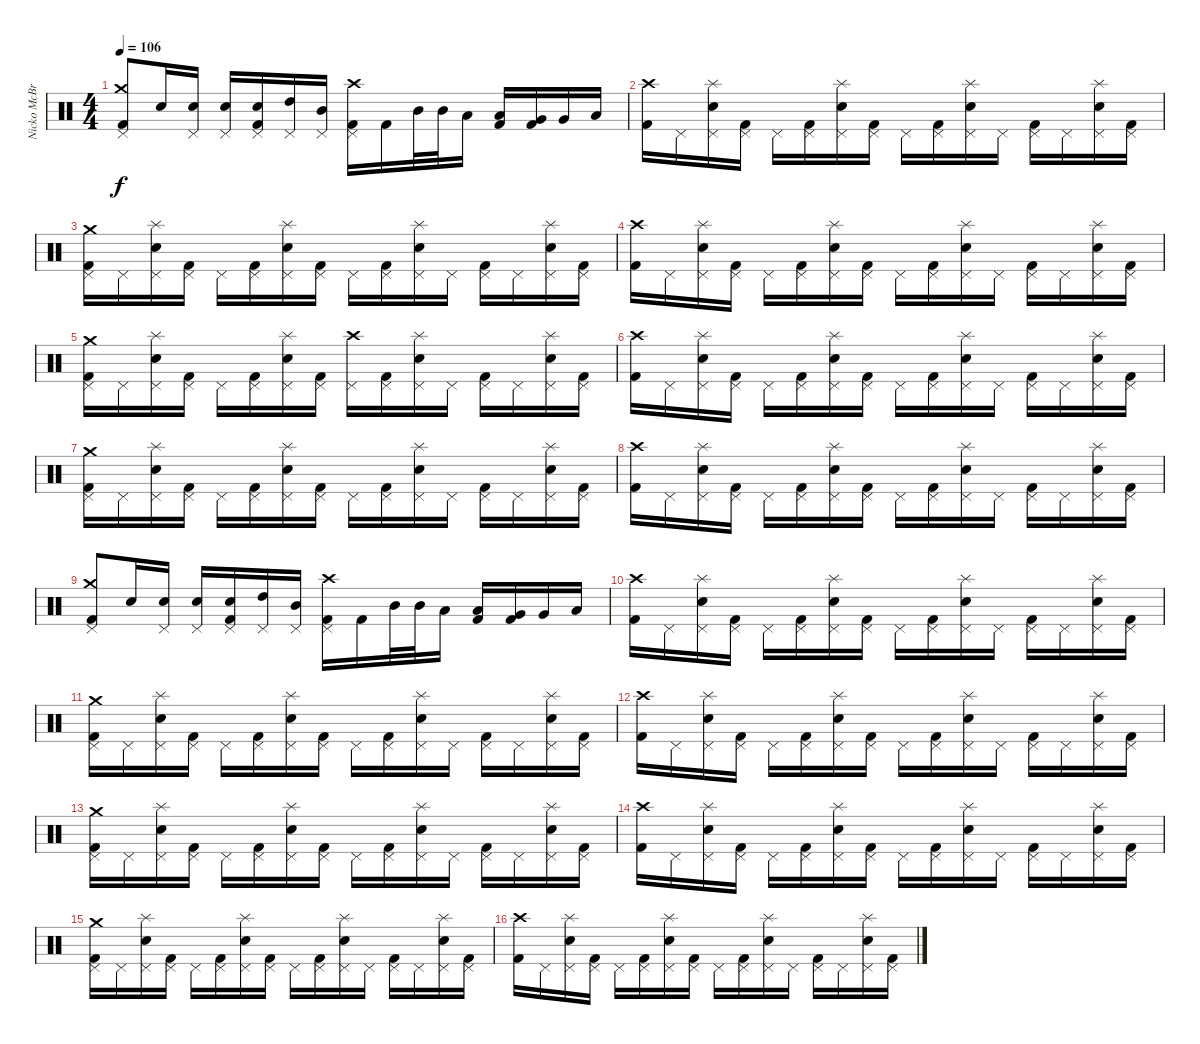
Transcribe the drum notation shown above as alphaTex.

\track ("Nicko McBrain" "Nicko McBr") {instrument percussion}
\staff {score}
\articulation defaults
\ts (4 4)
\tempo 106
\clef neutral
\ks c
("Pedal Hi-Hat (hit)" "Crash medium (hit)" "Kick (hit) 2").8{dy f} "Snare (hit) 2".16 ("Pedal Hi-Hat (hit)" "Snare (hit) 2").16 ("Pedal Hi-Hat (hit)" "Snare (hit) 2").16 ("Pedal Hi-Hat (hit)" "Snare (hit) 2" "Kick (hit) 2").16 ("Pedal Hi-Hat (hit)" "High Tom (hit)").16 ("Pedal Hi-Hat (hit)" "Mid Tom (hit)").16 ("Pedal Hi-Hat (hit)" "Crash high (hit)" "Kick (hit) 2").16 "Kick (hit) 2".16 "Mid Tom (hit)".32 "Mid Tom (hit)".32 "Low Tom (hit)".16 ("Low Tom (hit)" "Kick (hit) 2").16 ("Very Low Tom (hit)" "Kick (hit) 2").16 "Very Low Tom (hit)".16 "Low Floor Tom (hit)".16 |
("Crash high (hit)" "Kick (hit) 2").16 "Pedal Hi-Hat (hit)".16 ("Pedal Hi-Hat (hit)" "Snare (hit) 2" "Splash (hit)").16 ("Pedal Hi-Hat (hit)" "Kick (hit) 2").16 "Pedal Hi-Hat (hit)".16 ("Pedal Hi-Hat (hit)" "Kick (hit) 2").16 ("Pedal Hi-Hat (hit)" "Snare (hit) 2" "Splash (hit)").16 ("Pedal Hi-Hat (hit)" "Kick (hit) 2").16 "Pedal Hi-Hat (hit)".16 ("Pedal Hi-Hat (hit)" "Kick (hit) 2").16 ("Pedal Hi-Hat (hit)" "Snare (hit) 2" "Splash (hit)").16 "Pedal Hi-Hat (hit)".16 ("Pedal Hi-Hat (hit)" "Kick (hit) 2").16 "Pedal Hi-Hat (hit)".16 ("Pedal Hi-Hat (hit)" "Snare (hit) 2" "Splash (hit)").16 ("Pedal Hi-Hat (hit)" "Kick (hit) 2").16 |
("Pedal Hi-Hat (hit)" "Crash medium (hit)" "Kick (hit) 2").16 "Pedal Hi-Hat (hit)".16 ("Pedal Hi-Hat (hit)" "Snare (hit) 2" "Splash (hit)").16 ("Pedal Hi-Hat (hit)" "Kick (hit) 2").16 "Pedal Hi-Hat (hit)".16 ("Pedal Hi-Hat (hit)" "Kick (hit) 2").16 ("Pedal Hi-Hat (hit)" "Snare (hit) 2" "Splash (hit)").16 ("Pedal Hi-Hat (hit)" "Kick (hit) 2").16 "Pedal Hi-Hat (hit)".16 ("Pedal Hi-Hat (hit)" "Kick (hit) 2").16 ("Pedal Hi-Hat (hit)" "Snare (hit) 2" "Splash (hit)").16 "Pedal Hi-Hat (hit)".16 ("Pedal Hi-Hat (hit)" "Kick (hit) 2").16 "Pedal Hi-Hat (hit)".16 ("Pedal Hi-Hat (hit)" "Snare (hit) 2" "Splash (hit)").16 ("Pedal Hi-Hat (hit)" "Kick (hit) 2").16 |
("Crash high (hit)" "Kick (hit) 2").16 "Pedal Hi-Hat (hit)".16 ("Pedal Hi-Hat (hit)" "Snare (hit) 2" "Splash (hit)").16 ("Pedal Hi-Hat (hit)" "Kick (hit) 2").16 "Pedal Hi-Hat (hit)".16 ("Pedal Hi-Hat (hit)" "Kick (hit) 2").16 ("Pedal Hi-Hat (hit)" "Snare (hit) 2" "Splash (hit)").16 ("Pedal Hi-Hat (hit)" "Kick (hit) 2").16 "Pedal Hi-Hat (hit)".16 ("Pedal Hi-Hat (hit)" "Kick (hit) 2").16 ("Pedal Hi-Hat (hit)" "Snare (hit) 2" "Splash (hit)").16 "Pedal Hi-Hat (hit)".16 ("Pedal Hi-Hat (hit)" "Kick (hit) 2").16 "Pedal Hi-Hat (hit)".16 ("Pedal Hi-Hat (hit)" "Snare (hit) 2" "Splash (hit)").16 ("Pedal Hi-Hat (hit)" "Kick (hit) 2").16 |
("Pedal Hi-Hat (hit)" "Crash medium (hit)" "Kick (hit) 2").16 "Pedal Hi-Hat (hit)".16 ("Pedal Hi-Hat (hit)" "Snare (hit) 2" "Splash (hit)").16 ("Pedal Hi-Hat (hit)" "Kick (hit) 2").16 "Pedal Hi-Hat (hit)".16 ("Pedal Hi-Hat (hit)" "Kick (hit) 2").16 ("Pedal Hi-Hat (hit)" "Snare (hit) 2" "Splash (hit)").16 ("Pedal Hi-Hat (hit)" "Kick (hit) 2").16 ("Pedal Hi-Hat (hit)" "Crash high (hit)").16 ("Pedal Hi-Hat (hit)" "Kick (hit) 2").16 ("Pedal Hi-Hat (hit)" "Snare (hit) 2" "Splash (hit)").16 "Pedal Hi-Hat (hit)".16 ("Pedal Hi-Hat (hit)" "Kick (hit) 2").16 "Pedal Hi-Hat (hit)".16 ("Pedal Hi-Hat (hit)" "Snare (hit) 2" "Splash (hit)").16 ("Pedal Hi-Hat (hit)" "Kick (hit) 2").16 |
("Crash high (hit)" "Kick (hit) 2").16 "Pedal Hi-Hat (hit)".16 ("Pedal Hi-Hat (hit)" "Snare (hit) 2" "Splash (hit)").16 ("Pedal Hi-Hat (hit)" "Kick (hit) 2").16 "Pedal Hi-Hat (hit)".16 ("Pedal Hi-Hat (hit)" "Kick (hit) 2").16 ("Pedal Hi-Hat (hit)" "Snare (hit) 2" "Splash (hit)").16 ("Pedal Hi-Hat (hit)" "Kick (hit) 2").16 "Pedal Hi-Hat (hit)".16 ("Pedal Hi-Hat (hit)" "Kick (hit) 2").16 ("Pedal Hi-Hat (hit)" "Snare (hit) 2" "Splash (hit)").16 "Pedal Hi-Hat (hit)".16 ("Pedal Hi-Hat (hit)" "Kick (hit) 2").16 "Pedal Hi-Hat (hit)".16 ("Pedal Hi-Hat (hit)" "Snare (hit) 2" "Splash (hit)").16 ("Pedal Hi-Hat (hit)" "Kick (hit) 2").16 |
("Pedal Hi-Hat (hit)" "Crash medium (hit)" "Kick (hit) 2").16 "Pedal Hi-Hat (hit)".16 ("Pedal Hi-Hat (hit)" "Snare (hit) 2" "Splash (hit)").16 ("Pedal Hi-Hat (hit)" "Kick (hit) 2").16 "Pedal Hi-Hat (hit)".16 ("Pedal Hi-Hat (hit)" "Kick (hit) 2").16 ("Pedal Hi-Hat (hit)" "Snare (hit) 2" "Splash (hit)").16 ("Pedal Hi-Hat (hit)" "Kick (hit) 2").16 "Pedal Hi-Hat (hit)".16 ("Pedal Hi-Hat (hit)" "Kick (hit) 2").16 ("Pedal Hi-Hat (hit)" "Snare (hit) 2" "Splash (hit)").16 "Pedal Hi-Hat (hit)".16 ("Pedal Hi-Hat (hit)" "Kick (hit) 2").16 "Pedal Hi-Hat (hit)".16 ("Pedal Hi-Hat (hit)" "Snare (hit) 2" "Splash (hit)").16 ("Pedal Hi-Hat (hit)" "Kick (hit) 2").16 |
("Crash high (hit)" "Kick (hit) 2").16 "Pedal Hi-Hat (hit)".16 ("Pedal Hi-Hat (hit)" "Snare (hit) 2" "Splash (hit)").16 ("Pedal Hi-Hat (hit)" "Kick (hit) 2").16 "Pedal Hi-Hat (hit)".16 ("Pedal Hi-Hat (hit)" "Kick (hit) 2").16 ("Pedal Hi-Hat (hit)" "Snare (hit) 2" "Splash (hit)").16 ("Pedal Hi-Hat (hit)" "Kick (hit) 2").16 "Pedal Hi-Hat (hit)".16 ("Pedal Hi-Hat (hit)" "Kick (hit) 2").16 ("Pedal Hi-Hat (hit)" "Snare (hit) 2" "Splash (hit)").16 "Pedal Hi-Hat (hit)".16 ("Pedal Hi-Hat (hit)" "Kick (hit) 2").16 "Pedal Hi-Hat (hit)".16 ("Pedal Hi-Hat (hit)" "Snare (hit) 2" "Splash (hit)").16 ("Pedal Hi-Hat (hit)" "Kick (hit) 2").16 |
("Pedal Hi-Hat (hit)" "Crash medium (hit)" "Kick (hit) 2").8 "Snare (hit) 2".16 ("Pedal Hi-Hat (hit)" "Snare (hit) 2").16 ("Pedal Hi-Hat (hit)" "Snare (hit) 2").16 ("Pedal Hi-Hat (hit)" "Snare (hit) 2" "Kick (hit) 2").16 ("Pedal Hi-Hat (hit)" "High Tom (hit)").16 ("Pedal Hi-Hat (hit)" "Mid Tom (hit)").16 ("Pedal Hi-Hat (hit)" "Crash high (hit)" "Kick (hit) 2").16 "Kick (hit) 2".16 "Mid Tom (hit)".32 "Mid Tom (hit)".32 "Low Tom (hit)".16 ("Low Tom (hit)" "Kick (hit) 2").16 ("Very Low Tom (hit)" "Kick (hit) 2").16 "Very Low Tom (hit)".16 "Low Floor Tom (hit)".16 |
("Crash high (hit)" "Kick (hit) 2").16 "Pedal Hi-Hat (hit)".16 ("Pedal Hi-Hat (hit)" "Snare (hit) 2" "Splash (hit)").16 ("Pedal Hi-Hat (hit)" "Kick (hit) 2").16 "Pedal Hi-Hat (hit)".16 ("Pedal Hi-Hat (hit)" "Kick (hit) 2").16 ("Pedal Hi-Hat (hit)" "Snare (hit) 2" "Splash (hit)").16 ("Pedal Hi-Hat (hit)" "Kick (hit) 2").16 "Pedal Hi-Hat (hit)".16 ("Pedal Hi-Hat (hit)" "Kick (hit) 2").16 ("Pedal Hi-Hat (hit)" "Snare (hit) 2" "Splash (hit)").16 "Pedal Hi-Hat (hit)".16 ("Pedal Hi-Hat (hit)" "Kick (hit) 2").16 "Pedal Hi-Hat (hit)".16 ("Pedal Hi-Hat (hit)" "Snare (hit) 2" "Splash (hit)").16 ("Pedal Hi-Hat (hit)" "Kick (hit) 2").16 |
("Pedal Hi-Hat (hit)" "Crash medium (hit)" "Kick (hit) 2").16 "Pedal Hi-Hat (hit)".16 ("Pedal Hi-Hat (hit)" "Snare (hit) 2" "Splash (hit)").16 ("Pedal Hi-Hat (hit)" "Kick (hit) 2").16 "Pedal Hi-Hat (hit)".16 ("Pedal Hi-Hat (hit)" "Kick (hit) 2").16 ("Pedal Hi-Hat (hit)" "Snare (hit) 2" "Splash (hit)").16 ("Pedal Hi-Hat (hit)" "Kick (hit) 2").16 "Pedal Hi-Hat (hit)".16 ("Pedal Hi-Hat (hit)" "Kick (hit) 2").16 ("Pedal Hi-Hat (hit)" "Snare (hit) 2" "Splash (hit)").16 "Pedal Hi-Hat (hit)".16 ("Pedal Hi-Hat (hit)" "Kick (hit) 2").16 "Pedal Hi-Hat (hit)".16 ("Pedal Hi-Hat (hit)" "Snare (hit) 2" "Splash (hit)").16 ("Pedal Hi-Hat (hit)" "Kick (hit) 2").16 |
("Crash high (hit)" "Kick (hit) 2").16 "Pedal Hi-Hat (hit)".16 ("Pedal Hi-Hat (hit)" "Snare (hit) 2" "Splash (hit)").16 ("Pedal Hi-Hat (hit)" "Kick (hit) 2").16 "Pedal Hi-Hat (hit)".16 ("Pedal Hi-Hat (hit)" "Kick (hit) 2").16 ("Pedal Hi-Hat (hit)" "Snare (hit) 2" "Splash (hit)").16 ("Pedal Hi-Hat (hit)" "Kick (hit) 2").16 "Pedal Hi-Hat (hit)".16 ("Pedal Hi-Hat (hit)" "Kick (hit) 2").16 ("Pedal Hi-Hat (hit)" "Snare (hit) 2" "Splash (hit)").16 "Pedal Hi-Hat (hit)".16 ("Pedal Hi-Hat (hit)" "Kick (hit) 2").16 "Pedal Hi-Hat (hit)".16 ("Pedal Hi-Hat (hit)" "Snare (hit) 2" "Splash (hit)").16 ("Pedal Hi-Hat (hit)" "Kick (hit) 2").16 |
("Pedal Hi-Hat (hit)" "Crash medium (hit)" "Kick (hit) 2").16 "Pedal Hi-Hat (hit)".16 ("Pedal Hi-Hat (hit)" "Snare (hit) 2" "Splash (hit)").16 ("Pedal Hi-Hat (hit)" "Kick (hit) 2").16 "Pedal Hi-Hat (hit)".16 ("Pedal Hi-Hat (hit)" "Kick (hit) 2").16 ("Pedal Hi-Hat (hit)" "Snare (hit) 2" "Splash (hit)").16 ("Pedal Hi-Hat (hit)" "Kick (hit) 2").16 "Pedal Hi-Hat (hit)".16 ("Pedal Hi-Hat (hit)" "Kick (hit) 2").16 ("Pedal Hi-Hat (hit)" "Snare (hit) 2" "Splash (hit)").16 "Pedal Hi-Hat (hit)".16 ("Pedal Hi-Hat (hit)" "Kick (hit) 2").16 "Pedal Hi-Hat (hit)".16 ("Pedal Hi-Hat (hit)" "Snare (hit) 2" "Splash (hit)").16 ("Pedal Hi-Hat (hit)" "Kick (hit) 2").16 |
("Crash high (hit)" "Kick (hit) 2").16 "Pedal Hi-Hat (hit)".16 ("Pedal Hi-Hat (hit)" "Snare (hit) 2" "Splash (hit)").16 ("Pedal Hi-Hat (hit)" "Kick (hit) 2").16 "Pedal Hi-Hat (hit)".16 ("Pedal Hi-Hat (hit)" "Kick (hit) 2").16 ("Pedal Hi-Hat (hit)" "Snare (hit) 2" "Splash (hit)").16 ("Pedal Hi-Hat (hit)" "Kick (hit) 2").16 "Pedal Hi-Hat (hit)".16 ("Pedal Hi-Hat (hit)" "Kick (hit) 2").16 ("Pedal Hi-Hat (hit)" "Snare (hit) 2" "Splash (hit)").16 "Pedal Hi-Hat (hit)".16 ("Pedal Hi-Hat (hit)" "Kick (hit) 2").16 "Pedal Hi-Hat (hit)".16 ("Pedal Hi-Hat (hit)" "Snare (hit) 2" "Splash (hit)").16 ("Pedal Hi-Hat (hit)" "Kick (hit) 2").16 |
("Pedal Hi-Hat (hit)" "Crash medium (hit)" "Kick (hit) 2").16 "Pedal Hi-Hat (hit)".16 ("Pedal Hi-Hat (hit)" "Snare (hit) 2" "Splash (hit)").16 ("Pedal Hi-Hat (hit)" "Kick (hit) 2").16 "Pedal Hi-Hat (hit)".16 ("Pedal Hi-Hat (hit)" "Kick (hit) 2").16 ("Pedal Hi-Hat (hit)" "Snare (hit) 2" "Splash (hit)").16 ("Pedal Hi-Hat (hit)" "Kick (hit) 2").16 "Pedal Hi-Hat (hit)".16 ("Pedal Hi-Hat (hit)" "Kick (hit) 2").16 ("Pedal Hi-Hat (hit)" "Snare (hit) 2" "Splash (hit)").16 "Pedal Hi-Hat (hit)".16 ("Pedal Hi-Hat (hit)" "Kick (hit) 2").16 "Pedal Hi-Hat (hit)".16 ("Pedal Hi-Hat (hit)" "Snare (hit) 2" "Splash (hit)").16 ("Pedal Hi-Hat (hit)" "Kick (hit) 2").16 |
("Crash high (hit)" "Kick (hit) 2").16 "Pedal Hi-Hat (hit)".16 ("Pedal Hi-Hat (hit)" "Snare (hit) 2" "Splash (hit)").16 ("Pedal Hi-Hat (hit)" "Kick (hit) 2").16 "Pedal Hi-Hat (hit)".16 ("Pedal Hi-Hat (hit)" "Kick (hit) 2").16 ("Pedal Hi-Hat (hit)" "Snare (hit) 2" "Splash (hit)").16 ("Pedal Hi-Hat (hit)" "Kick (hit) 2").16 "Pedal Hi-Hat (hit)".16 ("Pedal Hi-Hat (hit)" "Kick (hit) 2").16 ("Pedal Hi-Hat (hit)" "Snare (hit) 2" "Splash (hit)").16 "Pedal Hi-Hat (hit)".16 ("Pedal Hi-Hat (hit)" "Kick (hit) 2").16 "Pedal Hi-Hat (hit)".16 ("Pedal Hi-Hat (hit)" "Snare (hit) 2" "Splash (hit)").16 ("Pedal Hi-Hat (hit)" "Kick (hit) 2").16
